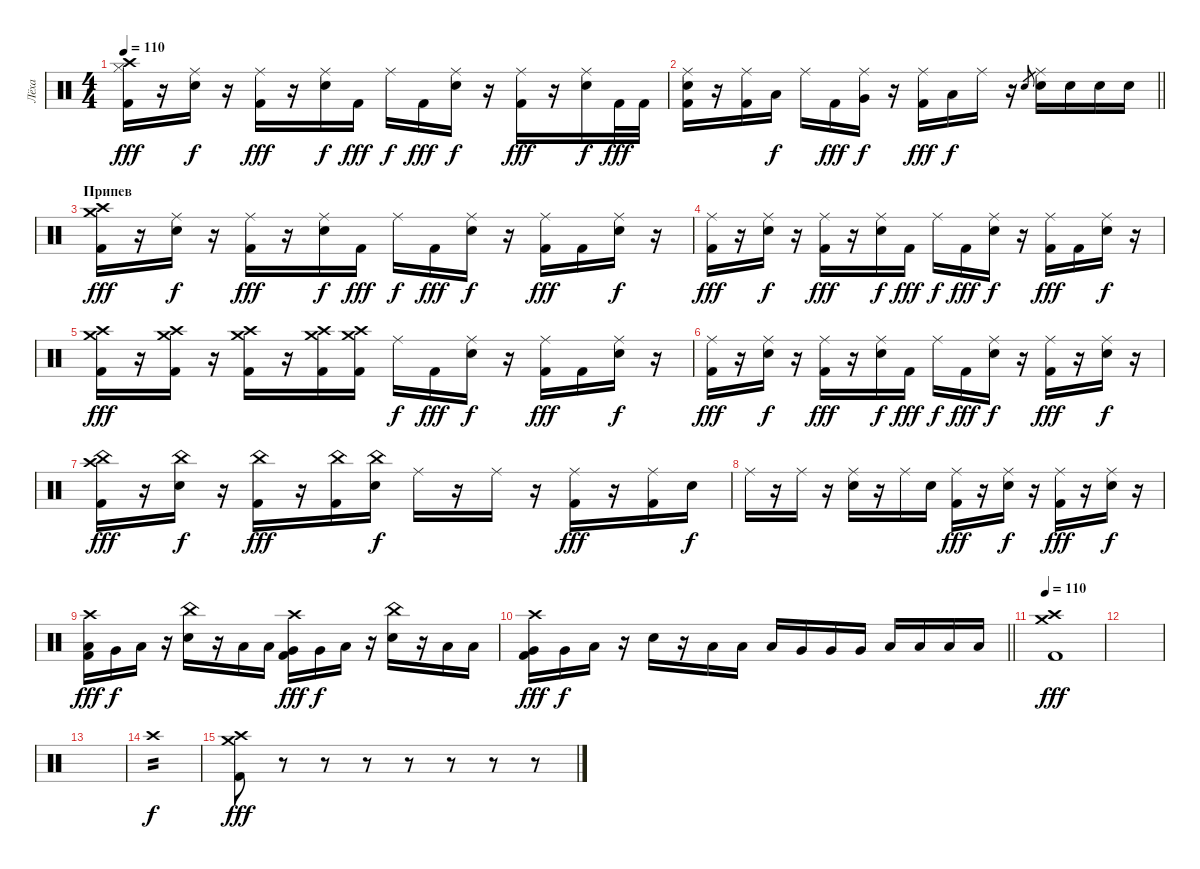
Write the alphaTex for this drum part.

\track ("Лёха" "Лёха") {instrument percussion}
\staff {score}
\articulation defaults
\ts (4 4)
\tempo 110
\clef neutral
\ks c
("Hi-Hat (closed)" "Crash high (hit)" "Kick (hit) 2").16{dy fff} r.16 ("Ride (middle)" "Electric Snare (hit)").16{dy f} r.16 ("Ride (middle)" "Kick (hit) 2").16{dy fff} r.16 ("Ride (middle)" "Electric Snare (hit)").16{dy f} "Kick (hit) 2".16{dy fff} "Ride (middle)".16{dy f} "Kick (hit) 2".16{dy fff} ("Ride (middle)" "Electric Snare (hit)").16{dy f} r.16 ("Ride (middle)" "Kick (hit) 2").16{dy fff} r.16 ("Ride (middle)" "Electric Snare (hit)").16{dy f} "Kick (hit) 2".32{dy fff} "Kick (hit) 2".32 |
\barLineRight lightlight
("Ride (middle)" "Electric Snare (hit)" "Kick (hit) 2").16 r.16 ("Ride (middle)" "Kick (hit) 2").16 "Low Tom (hit)".16{dy f} "Ride (middle)".16 "Kick (hit) 2".16{dy fff} ("Ride (middle)" "Very Low Tom (hit)").16{dy f} r.16 ("Ride (middle)" "Kick (hit) 2").16{dy fff} "Low Floor Tom (hit)".16{dy f} "Ride (middle)".16 r.16 "Electric Snare (hit)".8{gr} ("Ride (middle)" "Electric Snare (hit)").16 "Electric Snare (hit)".16 "Electric Snare (hit)".16 "Electric Snare (hit)".16 |
\section ("" "Припев")
("Crash high (hit)" "Crash medium (hit)" "Kick (hit) 2").16{dy fff} r.16 ("Ride (middle)" "Electric Snare (hit)").16{dy f} r.16 ("Ride (middle)" "Kick (hit) 2").16{dy fff} r.16 ("Ride (middle)" "Electric Snare (hit)").16{dy f} "Kick (hit) 2".16{dy fff} "Ride (middle)".16{dy f} "Kick (hit) 2".16{dy fff} ("Ride (middle)" "Electric Snare (hit)").16{dy f} r.16 ("Ride (middle)" "Kick (hit) 2").16{dy fff} "Kick (hit) 2".16 ("Ride (middle)" "Electric Snare (hit)").16{dy f} r.16 |
("Ride (middle)" "Kick (hit) 2").16{dy fff} r.16 ("Ride (middle)" "Electric Snare (hit)").16{dy f} r.16 ("Ride (middle)" "Kick (hit) 2").16{dy fff} r.16 ("Ride (middle)" "Electric Snare (hit)").16{dy f} "Kick (hit) 2".16{dy fff} "Ride (middle)".16{dy f} "Kick (hit) 2".16{dy fff} ("Ride (middle)" "Electric Snare (hit)").16{dy f} r.16 ("Ride (middle)" "Kick (hit) 2").16{dy fff} "Kick (hit) 2".16 ("Ride (middle)" "Electric Snare (hit)").16{dy f} r.16 |
("Crash high (hit)" "Crash medium (hit)" "Kick (hit) 2").16{dy fff} r.16 ("Crash high (hit)" "Crash medium (hit)" "Kick (hit) 2").16 r.16 ("Crash high (hit)" "Crash medium (hit)" "Kick (hit) 2").16 r.16 ("Crash high (hit)" "Crash medium (hit)" "Kick (hit) 2").16 ("Crash high (hit)" "Crash medium (hit)" "Kick (hit) 2").16 "Ride (middle)".16{dy f} "Kick (hit) 2".16{dy fff} ("Ride (middle)" "Electric Snare (hit)").16{dy f} r.16 ("Ride (middle)" "Kick (hit) 2").16{dy fff} "Kick (hit) 2".16 ("Ride (middle)" "Electric Snare (hit)").16{dy f} r.16 |
("Ride (middle)" "Kick (hit) 2").16{dy fff} r.16 ("Ride (middle)" "Electric Snare (hit)").16{dy f} r.16 ("Ride (middle)" "Kick (hit) 2").16{dy fff} r.16 ("Ride (middle)" "Electric Snare (hit)").16{dy f} "Kick (hit) 2".16{dy fff} "Ride (middle)".16{dy f} "Kick (hit) 2".16{dy fff} ("Ride (middle)" "Electric Snare (hit)").16{dy f} r.16 ("Ride (middle)" "Kick (hit) 2").16{dy fff} r.16 ("Ride (middle)" "Electric Snare (hit)").16{dy f} r.16 |
("China (hit)" "Crash high (hit)" "Kick (hit) 2").16{dy fff} r.16 ("China (hit)" "Electric Snare (hit)").16{dy f} r.16 ("China (hit)" "Kick (hit) 2").16{dy fff} r.16 ("China (hit)" "Kick (hit) 2").16 ("China (hit)" "Electric Snare (hit)").16{dy f} "Ride (middle)".16 r.16 "Ride (middle)".16 r.16 ("Ride (middle)" "Kick (hit) 2").16{dy fff} r.16 ("Ride (middle)" "Kick (hit) 2").16 "Electric Snare (hit)".16{dy f} |
"Ride (middle)".16 r.16 "Ride (middle)".16 r.16 ("Ride (middle)" "Electric Snare (hit)").16 r.16 "Ride (middle)".16 "Electric Snare (hit)".16 ("Ride (middle)" "Kick (hit) 2").16{dy fff} r.16 ("Ride (middle)" "Electric Snare (hit)").16{dy f} r.16 ("Ride (middle)" "Kick (hit) 2").16{dy fff} r.16 ("Ride (middle)" "Electric Snare (hit)").16{dy f} r.16 |
("Crash high (hit)" "Low Tom (hit)" "Kick (hit) 2").16{dy fff} "Very Low Tom (hit)".16{dy f} "Low Floor Tom (hit)".16 r.16 ("China (hit)" "Electric Snare (hit)").16 r.16 "Low Tom (hit)".16 "Low Tom (hit)".16 ("Crash high (hit)" "Very Low Tom (hit)" "Kick (hit) 2").16{dy fff} "Very Low Tom (hit)".16{dy f} "Low Floor Tom (hit)".16 r.16 ("China (hit)" "Electric Snare (hit)").16 r.16 "Low Tom (hit)".16 "Low Tom (hit)".16 |
\barLineRight lightlight
("Crash high (hit)" "Very Low Tom (hit)" "Kick (hit) 2").16{dy fff} "Very Low Tom (hit)".16{dy f} "Low Floor Tom (hit)".16 r.16 "Electric Snare (hit)".16 r.16 "Low Tom (hit)".16 "Low Tom (hit)".16 "Low Tom (hit)".16 "Very Low Tom (hit)".16 "Very Low Tom (hit)".16 "Very Low Tom (hit)".16 "Low Floor Tom (hit)".16 "Low Floor Tom (hit)".16 "Low Floor Tom (hit)".16 "Low Floor Tom (hit)".16 |
\section ("" "")
\tempo 110
("Crash high (hit)" "Crash medium (hit)" "Kick (hit) 2").1{dy fff} |
|
|
"Crash high (hit)".1{tp 2 dy f volume 16} |
("Crash high (hit)" "Crash medium (hit)" "Kick (hit) 2").8{dy fff} r.8{volume 0} r.8 r.8 r.8 r.8 r.8 r.8
